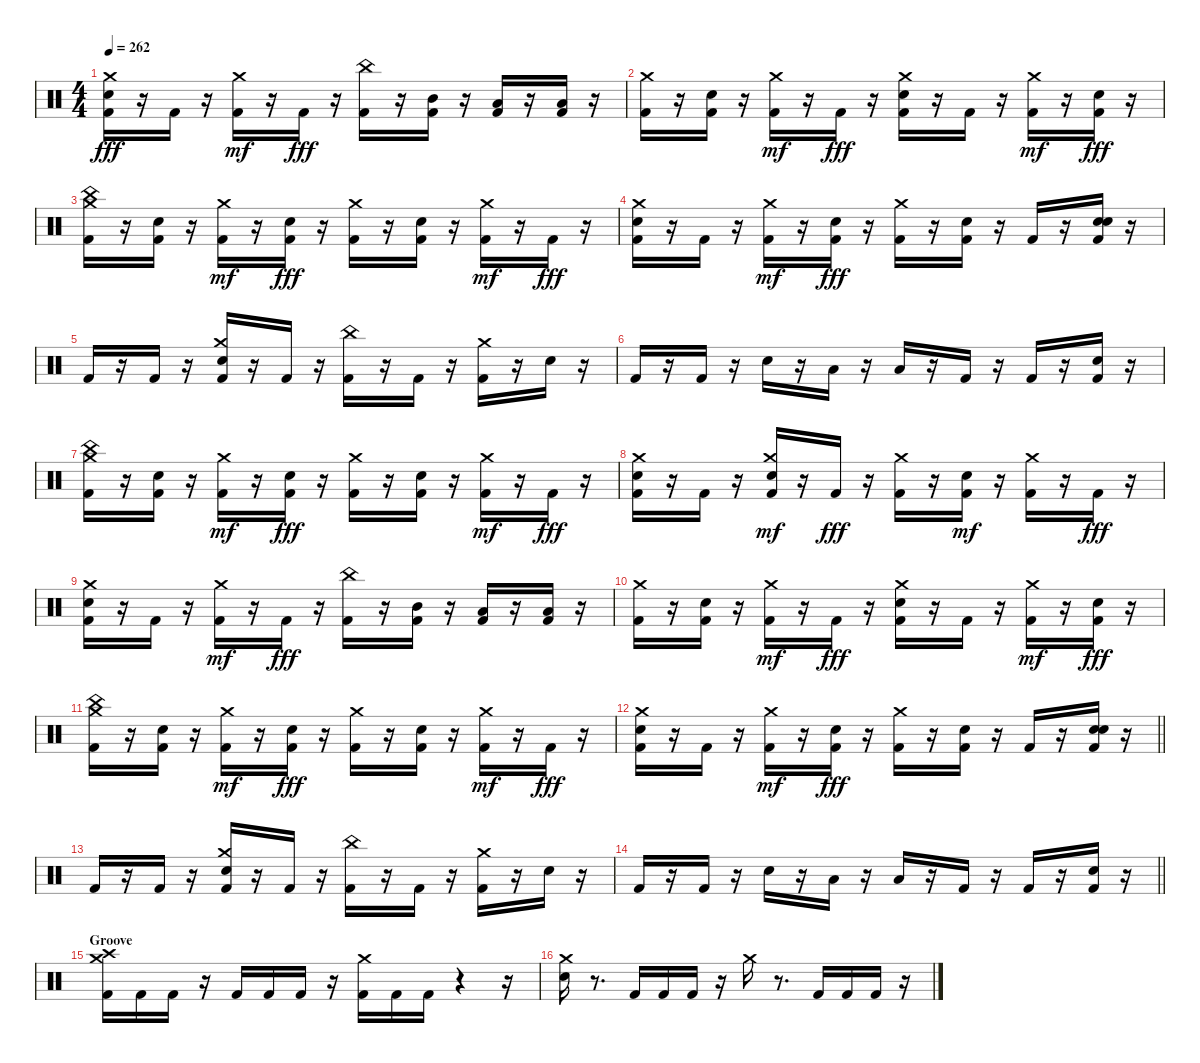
\track "" {instrument percussion}
\staff {score}
\articulation defaults
\ts (4 4)
\tempo 262
\clef neutral
\ks c
("Kick (hit) 2" "Electric Snare (hit)" "Crash medium (hit)").16{dy fff} r.16 "Kick (hit) 2".16 r.16 ("Kick (hit) 2" "Crash medium (hit)").16{dy mf} r.16 "Kick (hit) 2".16{dy fff} r.16 ("Kick (hit) 2" "China (hit)").16 r.16 ("Kick (hit) 2" "Mid Tom (hit)").16 r.16 ("Kick (hit) 2" "Low Floor Tom (hit)").16 r.16 ("Kick (hit) 2" "Low Floor Tom (hit)").16 r.16 |
("Kick (hit) 2" "Crash medium (hit)").16 r.16 ("Kick (hit) 2" "Electric Snare (hit)").16 r.16 ("Kick (hit) 2" "Crash medium (hit)").16{dy mf} r.16 "Kick (hit) 2".16{dy fff} r.16 ("Kick (hit) 2" "Crash medium (hit)" "Electric Snare (hit)").16 r.16 "Kick (hit) 2".16 r.16 ("Kick (hit) 2" "Crash medium (hit)").16{dy mf} r.16 ("Kick (hit) 2" "Electric Snare (hit)").16{dy fff} r.16 |
("Kick (hit) 2" "China (hit)" "Crash medium (hit)").16 r.16 ("Kick (hit) 2" "Hand Clap (hit)").16 r.16 ("Kick (hit) 2" "Crash medium (hit)").16{dy mf} r.16 ("Kick (hit) 2" "Hand Clap (hit)").16{dy fff} r.16 ("Kick (hit) 2" "Crash medium (hit)").16 r.16 ("Kick (hit) 2" "Hand Clap (hit)").16 r.16 ("Kick (hit) 2" "Crash medium (hit)").16{dy mf} r.16 "Kick (hit) 2".16{dy fff} r.16 |
("Kick (hit) 2" "Electric Snare (hit)" "Crash medium (hit)").16 r.16 "Kick (hit) 2".16 r.16 ("Kick (hit) 2" "Crash medium (hit)").16{dy mf} r.16 ("Kick (hit) 2" "Electric Snare (hit)").16{dy fff} r.16 ("Kick (hit) 2" "Crash medium (hit)").16 r.16 ("Kick (hit) 2" "Electric Snare (hit)").16 r.16 "Kick (hit) 2".16 r.16 ("Kick (hit) 2" "Snare (hit)" "Electric Snare (hit)").16 r.16 |
"Kick (hit) 2".16 r.16 "Kick (hit) 2".16 r.16 ("Kick (hit) 2" "Snare (hit)" "Crash medium (hit)").16 r.16 "Kick (hit) 2".16 r.16 ("Kick (hit) 2" "China (hit)").16 r.16 "Kick (hit) 2".16 r.16 ("Kick (hit) 2" "Crash medium (hit)").16 r.16 "Electric Snare (hit)".16 r.16 |
"Kick (hit) 2".16 r.16 "Kick (hit) 2".16 r.16 "Electric Snare (hit)".16 r.16 "Low Tom (hit)".16 r.16 "Low Floor Tom (hit)".16 r.16 "Kick (hit) 2".16 r.16 "Kick (hit) 2".16 r.16 ("Kick (hit) 2" "Electric Snare (hit)").16 r.16 |
("Kick (hit) 2" "China (hit)" "Crash medium (hit)").16 r.16 ("Kick (hit) 2" "Hand Clap (hit)").16 r.16 ("Kick (hit) 2" "Crash medium (hit)").16{dy mf} r.16 ("Kick (hit) 2" "Hand Clap (hit)").16{dy fff} r.16 ("Kick (hit) 2" "Crash medium (hit)").16 r.16 ("Kick (hit) 2" "Hand Clap (hit)").16 r.16 ("Kick (hit) 2" "Crash medium (hit)").16{dy mf} r.16 "Kick (hit) 2".16{dy fff} r.16 |
("Kick (hit) 2" "Electric Snare (hit)" "Crash medium (hit)").16 r.16 "Kick (hit) 2".16 r.16 ("Kick (hit) 2" "Hand Clap (hit)" "Crash medium (hit)").16{dy mf} r.16 "Kick (hit) 2".16{dy fff} r.16 ("Kick (hit) 2" "Crash medium (hit)").16 r.16 ("Kick (hit) 2" "Hand Clap (hit)").16{dy mf} r.16 ("Kick (hit) 2" "Crash medium (hit)").16 r.16 "Kick (hit) 2".16{dy fff} r.16 |
("Kick (hit) 2" "Electric Snare (hit)" "Crash medium (hit)").16 r.16 "Kick (hit) 2".16 r.16 ("Kick (hit) 2" "Crash medium (hit)").16{dy mf} r.16 "Kick (hit) 2".16{dy fff} r.16 ("Kick (hit) 2" "China (hit)").16 r.16 ("Kick (hit) 2" "Mid Tom (hit)").16 r.16 ("Kick (hit) 2" "Low Floor Tom (hit)").16 r.16 ("Kick (hit) 2" "Low Floor Tom (hit)").16 r.16 |
("Kick (hit) 2" "Crash medium (hit)").16 r.16 ("Kick (hit) 2" "Electric Snare (hit)").16 r.16 ("Kick (hit) 2" "Crash medium (hit)").16{dy mf} r.16 "Kick (hit) 2".16{dy fff} r.16 ("Kick (hit) 2" "Crash medium (hit)" "Electric Snare (hit)").16 r.16 "Kick (hit) 2".16 r.16 ("Kick (hit) 2" "Crash medium (hit)").16{dy mf} r.16 ("Kick (hit) 2" "Electric Snare (hit)").16{dy fff} r.16 |
("Kick (hit) 2" "China (hit)" "Crash medium (hit)").16 r.16 ("Kick (hit) 2" "Hand Clap (hit)").16 r.16 ("Kick (hit) 2" "Crash medium (hit)").16{dy mf} r.16 ("Kick (hit) 2" "Hand Clap (hit)").16{dy fff} r.16 ("Kick (hit) 2" "Crash medium (hit)").16 r.16 ("Kick (hit) 2" "Hand Clap (hit)").16 r.16 ("Kick (hit) 2" "Crash medium (hit)").16{dy mf} r.16 "Kick (hit) 2".16{dy fff} r.16 |
\barLineRight lightlight
("Kick (hit) 2" "Electric Snare (hit)" "Crash medium (hit)").16 r.16 "Kick (hit) 2".16 r.16 ("Kick (hit) 2" "Crash medium (hit)").16{dy mf} r.16 ("Kick (hit) 2" "Electric Snare (hit)").16{dy fff} r.16 ("Kick (hit) 2" "Crash medium (hit)").16 r.16 ("Kick (hit) 2" "Electric Snare (hit)").16 r.16 "Kick (hit) 2".16 r.16 ("Kick (hit) 2" "Snare (hit)" "Electric Snare (hit)").16 r.16 |
\section ("" "")
"Kick (hit) 2".16 r.16 "Kick (hit) 2".16 r.16 ("Kick (hit) 2" "Snare (hit)" "Crash medium (hit)").16 r.16 "Kick (hit) 2".16 r.16 ("Kick (hit) 2" "China (hit)").16 r.16 "Kick (hit) 2".16 r.16 ("Kick (hit) 2" "Crash medium (hit)").16 r.16 "Electric Snare (hit)".16 r.16 |
\barLineRight lightlight "Kick (hit) 2".16
r.16 "Kick (hit) 2".16 r.16 "Electric Snare (hit)".16 r.16 "Low Tom (hit)".16 r.16 "Low Floor Tom (hit)".16 r.16 "Kick (hit) 2".16 r.16 "Kick (hit) 2".16 r.16 ("Kick (hit) 2" "Electric Snare (hit)").16 r.16 |
\section ("" "Groove")
("Kick (hit) 2" "Crash high (hit)" "Crash medium (hit)").16 "Kick (hit) 2".16 "Kick (hit) 2".16 r.16 "Kick (hit) 2".16 "Kick (hit) 2".16 "Kick (hit) 2".16 r.16 ("Kick (hit) 2" "Crash medium (hit)").16 "Kick (hit) 2".16 "Kick (hit) 2".16 r.4 r.16 |
("Snare (hit) 2" "Crash medium (hit)").16 r.8{d} "Kick (hit) 2".16 "Kick (hit) 2".16 "Kick (hit) 2".16 r.16 "Crash medium (hit)".16 r.8{d} "Kick (hit) 2".16 "Kick (hit) 2".16 "Kick (hit) 2".16 r.16
